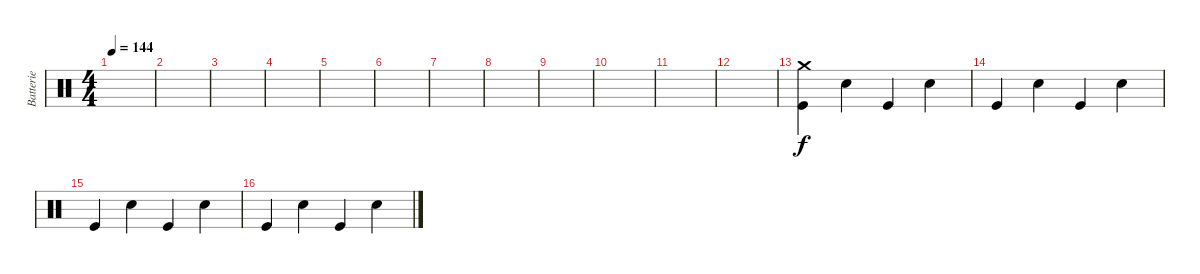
\track ("Batterie" "Batterie") {instrument percussion}
\staff {score}
\articulation defaults
\ts (4 4)
\tempo 144
\clef neutral
\ks c
|
|
|
|
|
|
|
|
|
|
|
|
("Crash medium (hit)" "Kick (hit)").4 "Snare (hit) 2".4 "Kick (hit)".4 "Snare (hit) 2".4 |
"Kick (hit)".4 "Snare (hit) 2".4 "Kick (hit)".4 "Snare (hit) 2".4 |
"Kick (hit)".4 "Snare (hit) 2".4 "Kick (hit)".4 "Snare (hit) 2".4 |
"Kick (hit)".4 "Snare (hit) 2".4 "Kick (hit)".4 "Snare (hit) 2".4
